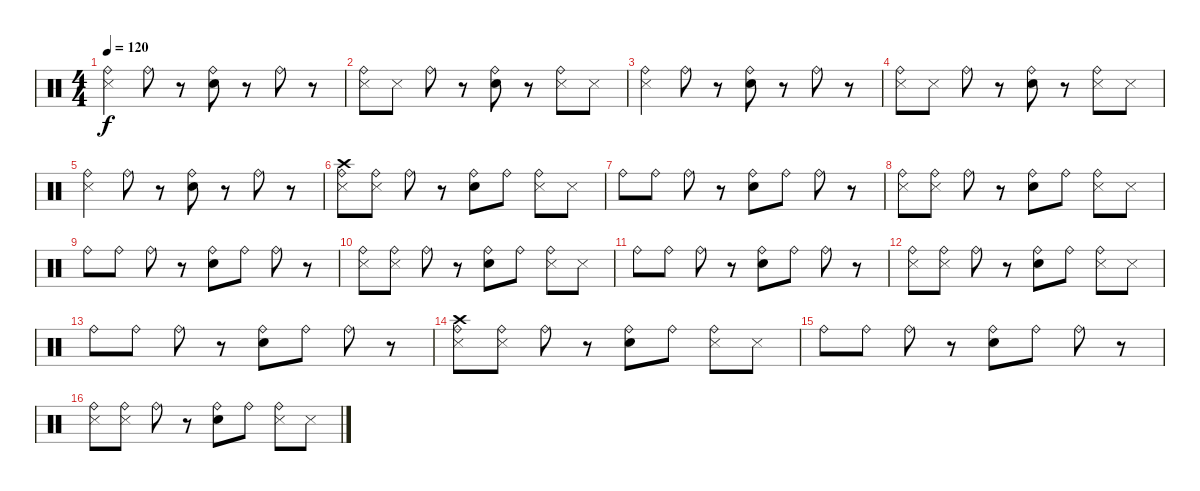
\track "" {instrument percussion}
\staff {score}
\articulation defaults
\ts (4 4)
\tempo 120
\clef neutral
\ks c
("Metronome (hit)" "Ride (bell)").4{dy f} "Ride (bell)".8 r.8 ("Electric Snare (hit)" "Ride (bell)").8 r.8 "Ride (bell)".8 r.8 |
("Metronome (hit)" "Ride (bell)").8 "Metronome (hit)".8 "Ride (bell)".8 r.8 ("Electric Snare (hit)" "Ride (bell)").8 r.8 ("Metronome (hit)" "Ride (bell)").8 "Metronome (hit)".8 |
("Metronome (hit)" "Ride (bell)").4 "Ride (bell)".8 r.8 ("Electric Snare (hit)" "Ride (bell)").8 r.8 "Ride (bell)".8 r.8 |
("Metronome (hit)" "Ride (bell)").8 "Metronome (hit)".8 "Ride (bell)".8 r.8 ("Electric Snare (hit)" "Ride (bell)").8 r.8 ("Metronome (hit)" "Ride (bell)").8 "Metronome (hit)".8 |
("Metronome (hit)" "Ride (bell)").4 "Ride (bell)".8 r.8 ("Electric Snare (hit)" "Ride (bell)").8 r.8 "Ride (bell)".8 r.8 |
("Metronome (hit)" "Crash high (hit)" "Ride (bell)").8 ("Metronome (hit)" "Ride (bell)").8 "Ride (bell)".8 r.8 ("Electric Snare (hit)" "Ride (bell)").8 "Ride (bell)".8 ("Metronome (hit)" "Ride (bell)").8 "Metronome (hit)".8 |
"Ride (bell)".8 "Ride (bell)".8 "Ride (bell)".8 r.8 ("Electric Snare (hit)" "Ride (bell)").8 "Ride (bell)".8 "Ride (bell)".8 r.8 |
("Metronome (hit)" "Ride (bell)").8 ("Metronome (hit)" "Ride (bell)").8 "Ride (bell)".8 r.8 ("Electric Snare (hit)" "Ride (bell)").8 "Ride (bell)".8 ("Metronome (hit)" "Ride (bell)").8 "Metronome (hit)".8 |
"Ride (bell)".8 "Ride (bell)".8 "Ride (bell)".8 r.8 ("Electric Snare (hit)" "Ride (bell)").8 "Ride (bell)".8 "Ride (bell)".8 r.8 |
("Metronome (hit)" "Ride (bell)").8 ("Metronome (hit)" "Ride (bell)").8 "Ride (bell)".8 r.8 ("Electric Snare (hit)" "Ride (bell)").8 "Ride (bell)".8 ("Metronome (hit)" "Ride (bell)").8 "Metronome (hit)".8 |
"Ride (bell)".8 "Ride (bell)".8 "Ride (bell)".8 r.8 ("Electric Snare (hit)" "Ride (bell)").8 "Ride (bell)".8 "Ride (bell)".8 r.8 |
("Metronome (hit)" "Ride (bell)").8 ("Metronome (hit)" "Ride (bell)").8 "Ride (bell)".8 r.8 ("Electric Snare (hit)" "Ride (bell)").8 "Ride (bell)".8 ("Metronome (hit)" "Ride (bell)").8 "Metronome (hit)".8 |
"Ride (bell)".8 "Ride (bell)".8 "Ride (bell)".8 r.8 ("Electric Snare (hit)" "Ride (bell)").8 "Ride (bell)".8 "Ride (bell)".8 r.8 |
("Metronome (hit)" "Ride (bell)" "Crash high (hit)").8 ("Metronome (hit)" "Ride (bell)").8 "Ride (bell)".8 r.8 ("Electric Snare (hit)" "Ride (bell)").8 "Ride (bell)".8 ("Metronome (hit)" "Ride (bell)").8 "Metronome (hit)".8 |
"Ride (bell)".8 "Ride (bell)".8 "Ride (bell)".8 r.8 ("Electric Snare (hit)" "Ride (bell)").8 "Ride (bell)".8 "Ride (bell)".8 r.8 |
("Metronome (hit)" "Ride (bell)").8 ("Metronome (hit)" "Ride (bell)").8 "Ride (bell)".8 r.8 ("Electric Snare (hit)" "Ride (bell)").8 "Ride (bell)".8 ("Metronome (hit)" "Ride (bell)").8 "Metronome (hit)".8
